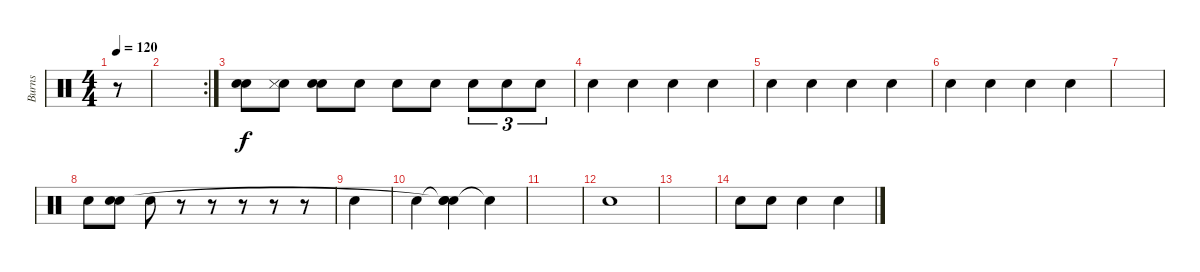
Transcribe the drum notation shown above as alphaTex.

\track ("Burns" "Burns") {instrument percussion}
\staff {score}
\articulation defaults
\ts (4 4)
\tempo 120
\tempo 135
\tempo 140
\tempo 120
\clef neutral
\ks c
r.8{dy f} |
\rc 2
|
("Snare (hit)" "Snare (hit) 2").8 ("Snare (hit) 2" "Snare (side stick) 3").8 ("Snare (hit)" "Snare (hit) 2").8 "Snare (hit) 2".8 "Snare (hit) 2".8 "Snare (hit) 2".8 "Snare (hit) 2".8{tu (3 2)} "Snare (hit) 2".8{tu (3 2)} "Snare (hit) 2".8{tu (3 2)} |
"Snare (hit) 2".4 "Snare (hit) 2".4 "Snare (hit) 2".4 "Snare (hit) 2".4 |
"Snare (hit) 2".4 "Snare (hit) 2".4 "Snare (hit) 2".4 "Snare (hit) 2".4 |
"Snare (hit) 2".4 "Snare (hit) 2".4 "Snare (hit) 2".4 "Snare (hit)".4 |
|
"Electric Snare (hit)".8 ("Snare (hit)" "Electric Snare (hit)").8 "Electric Snare (hit)".8 r.8 r.8 r.8 r.8 r.8 |
"Snare (hit)".4 |
"Electric Snare (hit)".4 ("Snare (hit)"{t} "Snare (hit)"{t} "Snare (hit)").4 "Snare (hit)"{t}.4 |
|
"Snare (hit) 2".1 |
|
"Snare (hit) 2".8 "Snare (hit) 2".8 "Snare (hit) 2".4 "Snare (hit)".4
